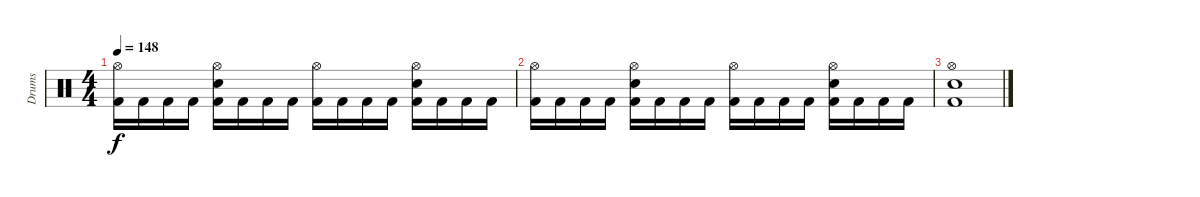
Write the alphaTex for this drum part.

\track ("Drums" "Drums") {instrument percussion}
\staff {score}
\articulation defaults
\ts (4 4)
\tempo 148
\clef neutral
\ks c
("Hi-Hat (open)" "Kick (hit) 2").16{dy f} "Kick (hit) 2".16 "Kick (hit) 2".16 "Kick (hit) 2".16 ("Hi-Hat (open)" "Snare (hit) 2" "Kick (hit) 2").16 "Kick (hit) 2".16 "Kick (hit) 2".16 "Kick (hit) 2".16 ("Hi-Hat (open)" "Kick (hit) 2").16 "Kick (hit) 2".16 "Kick (hit) 2".16 "Kick (hit) 2".16 ("Hi-Hat (open)" "Snare (hit) 2" "Kick (hit) 2").16 "Kick (hit) 2".16 "Kick (hit) 2".16 "Kick (hit) 2".16 |
("Hi-Hat (open)" "Kick (hit) 2").16 "Kick (hit) 2".16 "Kick (hit) 2".16 "Kick (hit) 2".16 ("Hi-Hat (open)" "Snare (hit) 2" "Kick (hit) 2").16 "Kick (hit) 2".16 "Kick (hit) 2".16 "Kick (hit) 2".16 ("Hi-Hat (open)" "Kick (hit) 2").16 "Kick (hit) 2".16 "Kick (hit) 2".16 "Kick (hit) 2".16 ("Hi-Hat (open)" "Snare (hit) 2" "Kick (hit) 2").16 "Kick (hit) 2".16 "Kick (hit) 2".16 "Kick (hit) 2".16 |
("Hi-Hat (open)" "Snare (hit) 2" "Kick (hit) 2").1
